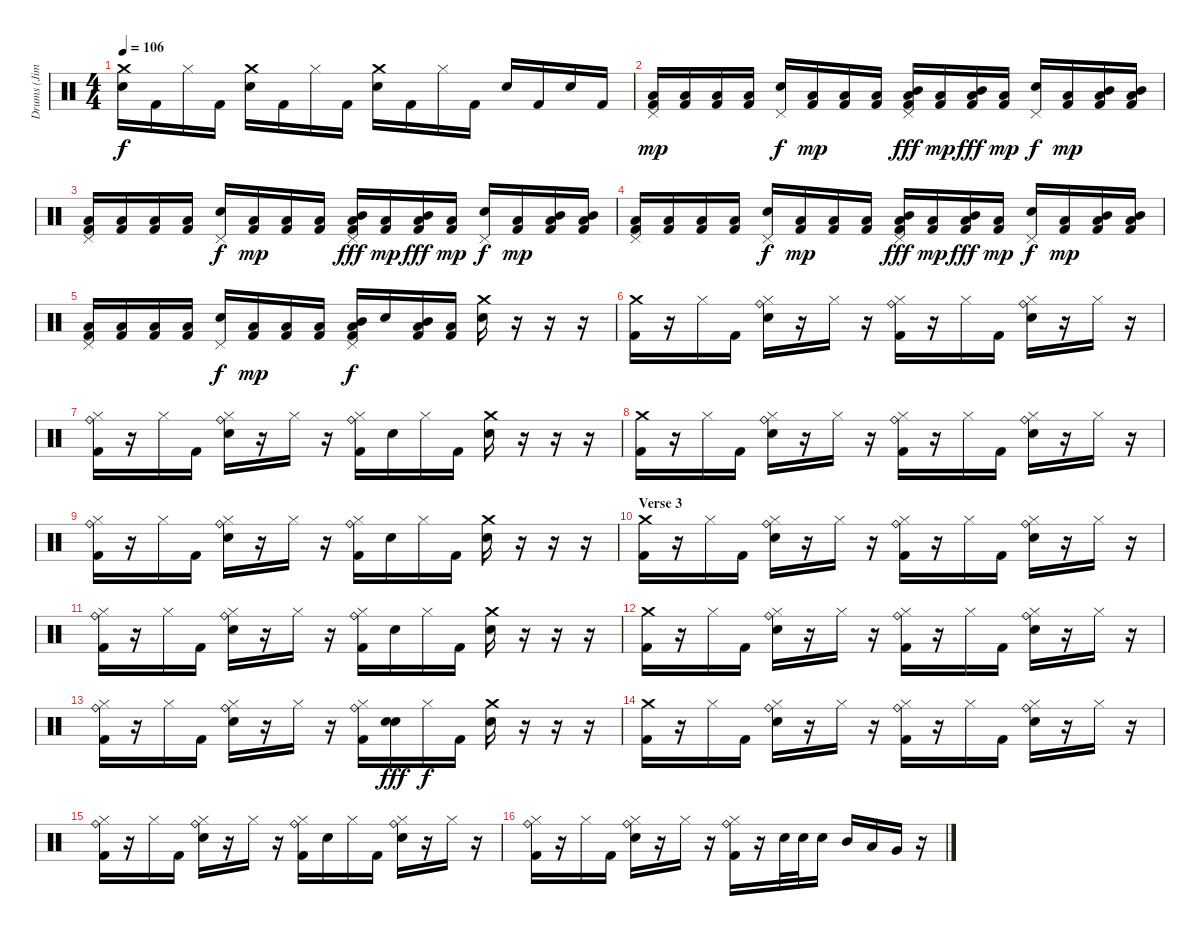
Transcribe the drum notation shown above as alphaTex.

\track ("Drums (Jimmy)" "Drums (Jim") {instrument percussion}
\staff {score}
\articulation defaults
\ts (4 4)
\tempo 106
\clef neutral
\ks c
("Crash medium (hit)" "Snare (hit) 2").16{dy f} "Kick (hit) 2".16 "Hi-Hat (closed)".16 "Kick (hit) 2".16 ("Crash medium (hit)" "Snare (hit) 2").16 "Kick (hit) 2".16 "Hi-Hat (closed)".16 "Kick (hit) 2".16 ("Crash medium (hit)" "Snare (hit) 2").16 "Kick (hit) 2".16 "Hi-Hat (closed)".16 "Kick (hit) 2".16 "Snare (hit) 2".16 "Kick (hit) 2".16 "Snare (hit) 2".16 "Kick (hit) 2".16 |
("Pedal Hi-Hat (hit)" "Low Tom (hit)" "Kick (hit) 2").16{dy mp} ("Low Tom (hit)" "Kick (hit) 2").16 ("Low Tom (hit)" "Kick (hit) 2").16 ("Low Tom (hit)" "Kick (hit) 2").16 ("Pedal Hi-Hat (hit)" "Snare (hit) 2").16{dy f} ("Low Tom (hit)" "Kick (hit) 2").16{dy mp} ("Low Tom (hit)" "Kick (hit) 2").16 ("Low Tom (hit)" "Kick (hit) 2").16 ("Pedal Hi-Hat (hit)" "Mid Tom (hit)" "Low Tom (hit)" "Kick (hit) 2").16{dy fff} ("Low Tom (hit)" "Kick (hit) 2").16{dy mp} ("Mid Tom (hit)" "Low Tom (hit)" "Kick (hit) 2").16{dy fff} ("Low Tom (hit)" "Kick (hit) 2").16{dy mp} ("Pedal Hi-Hat (hit)" "Snare (hit) 2").16{dy f} ("Low Tom (hit)" "Kick (hit) 2").16{dy mp} ("Mid Tom (hit)" "Low Tom (hit)" "Kick (hit) 2").16 ("Mid Tom (hit)" "Low Tom (hit)" "Kick (hit) 2").16 |
("Pedal Hi-Hat (hit)" "Low Tom (hit)" "Kick (hit) 2").16 ("Low Tom (hit)" "Kick (hit) 2").16 ("Low Tom (hit)" "Kick (hit) 2").16 ("Low Tom (hit)" "Kick (hit) 2").16 ("Pedal Hi-Hat (hit)" "Snare (hit) 2").16{dy f} ("Low Tom (hit)" "Kick (hit) 2").16{dy mp} ("Low Tom (hit)" "Kick (hit) 2").16 ("Low Tom (hit)" "Kick (hit) 2").16 ("Pedal Hi-Hat (hit)" "Mid Tom (hit)" "Low Tom (hit)" "Kick (hit) 2").16{dy fff} ("Low Tom (hit)" "Kick (hit) 2").16{dy mp} ("Mid Tom (hit)" "Low Tom (hit)" "Kick (hit) 2").16{dy fff} ("Low Tom (hit)" "Kick (hit) 2").16{dy mp} ("Pedal Hi-Hat (hit)" "Snare (hit) 2").16{dy f} ("Low Tom (hit)" "Kick (hit) 2").16{dy mp} ("Mid Tom (hit)" "Low Tom (hit)" "Kick (hit) 2").16 ("Mid Tom (hit)" "Low Tom (hit)" "Kick (hit) 2").16 |
("Pedal Hi-Hat (hit)" "Low Tom (hit)" "Kick (hit) 2").16 ("Low Tom (hit)" "Kick (hit) 2").16 ("Low Tom (hit)" "Kick (hit) 2").16 ("Low Tom (hit)" "Kick (hit) 2").16 ("Pedal Hi-Hat (hit)" "Snare (hit) 2").16{dy f} ("Low Tom (hit)" "Kick (hit) 2").16{dy mp} ("Low Tom (hit)" "Kick (hit) 2").16 ("Low Tom (hit)" "Kick (hit) 2").16 ("Pedal Hi-Hat (hit)" "Mid Tom (hit)" "Low Tom (hit)" "Kick (hit) 2").16{dy fff} ("Low Tom (hit)" "Kick (hit) 2").16{dy mp} ("Mid Tom (hit)" "Low Tom (hit)" "Kick (hit) 2").16{dy fff} ("Low Tom (hit)" "Kick (hit) 2").16{dy mp} ("Pedal Hi-Hat (hit)" "Snare (hit) 2").16{dy f} ("Low Tom (hit)" "Kick (hit) 2").16{dy mp} ("Mid Tom (hit)" "Low Tom (hit)" "Kick (hit) 2").16 ("Mid Tom (hit)" "Low Tom (hit)" "Kick (hit) 2").16 |
("Pedal Hi-Hat (hit)" "Low Tom (hit)" "Kick (hit) 2").16 ("Low Tom (hit)" "Kick (hit) 2").16 ("Low Tom (hit)" "Kick (hit) 2").16 ("Low Tom (hit)" "Kick (hit) 2").16 ("Pedal Hi-Hat (hit)" "Snare (hit) 2").16{dy f} ("Low Tom (hit)" "Kick (hit) 2").16{dy mp} ("Low Tom (hit)" "Kick (hit) 2").16 ("Low Tom (hit)" "Kick (hit) 2").16 ("Pedal Hi-Hat (hit)" "Mid Tom (hit)" "Low Tom (hit)" "Kick (hit) 2").16{dy f} "Snare (hit) 2".16 ("Mid Tom (hit)" "Low Tom (hit)" "Kick (hit) 2").16 ("Low Tom (hit)" "Kick (hit) 2").16 ("Crash medium (hit)" "Snare (hit) 2").16 r.16 r.16 r.16 |
("Crash medium (hit)" "Kick (hit) 2").16 r.16 "Hi-Hat (closed)".16 "Kick (hit) 2".16 ("Ride (bell)" "Hi-Hat (closed)" "Snare (hit) 2").16 r.16 "Hi-Hat (closed)".16 r.16 ("Ride (bell)" "Hi-Hat (closed)" "Kick (hit) 2").16 r.16 "Hi-Hat (closed)".16 "Kick (hit) 2".16 ("Ride (bell)" "Hi-Hat (closed)" "Snare (hit) 2").16 r.16 "Hi-Hat (closed)".16 r.16 |
("Ride (bell)" "Hi-Hat (closed)" "Kick (hit) 2").16 r.16 "Hi-Hat (closed)".16 "Kick (hit) 2".16 ("Ride (bell)" "Hi-Hat (closed)" "Snare (hit) 2").16 r.16 "Hi-Hat (closed)".16 r.16 ("Ride (bell)" "Hi-Hat (closed)" "Kick (hit) 2").16 "Snare (hit) 2".16 "Hi-Hat (closed)".16 "Kick (hit) 2".16 ("Crash medium (hit)" "Snare (hit) 2").16 r.16 r.16 r.16 |
("Crash medium (hit)" "Kick (hit) 2").16 r.16 "Hi-Hat (closed)".16 "Kick (hit) 2".16 ("Ride (bell)" "Hi-Hat (closed)" "Snare (hit) 2").16 r.16 "Hi-Hat (closed)".16 r.16 ("Ride (bell)" "Hi-Hat (closed)" "Kick (hit) 2").16 r.16 "Hi-Hat (closed)".16 "Kick (hit) 2".16 ("Ride (bell)" "Hi-Hat (closed)" "Snare (hit) 2").16 r.16 "Hi-Hat (closed)".16 r.16 |
("Ride (bell)" "Hi-Hat (closed)" "Kick (hit) 2").16 r.16 "Hi-Hat (closed)".16 "Kick (hit) 2".16 ("Ride (bell)" "Hi-Hat (closed)" "Snare (hit) 2").16 r.16 "Hi-Hat (closed)".16 r.16 ("Ride (bell)" "Hi-Hat (closed)" "Kick (hit) 2").16 "Snare (hit) 2".16 "Hi-Hat (closed)".16 "Kick (hit) 2".16 ("Crash medium (hit)" "Snare (hit) 2").16 r.16 r.16 r.16 |
\section ("" "Verse 3")
("Crash medium (hit)" "Kick (hit) 2").16 r.16 "Hi-Hat (closed)".16 "Kick (hit) 2".16 ("Ride (bell)" "Hi-Hat (closed)" "Snare (hit) 2").16 r.16 "Hi-Hat (closed)".16 r.16 ("Ride (bell)" "Hi-Hat (closed)" "Kick (hit) 2").16 r.16 "Hi-Hat (closed)".16 "Kick (hit) 2".16 ("Ride (bell)" "Hi-Hat (closed)" "Snare (hit) 2").16 r.16 "Hi-Hat (closed)".16 r.16 |
("Ride (bell)" "Hi-Hat (closed)" "Kick (hit) 2").16 r.16 "Hi-Hat (closed)".16 "Kick (hit) 2".16 ("Ride (bell)" "Hi-Hat (closed)" "Snare (hit) 2").16 r.16 "Hi-Hat (closed)".16 r.16 ("Ride (bell)" "Hi-Hat (closed)" "Kick (hit) 2").16 "Snare (hit) 2".16 "Hi-Hat (closed)".16 "Kick (hit) 2".16 ("Crash medium (hit)" "Snare (hit) 2").16 r.16 r.16 r.16 |
("Crash medium (hit)" "Kick (hit) 2").16 r.16 "Hi-Hat (closed)".16 "Kick (hit) 2".16 ("Ride (bell)" "Hi-Hat (closed)" "Snare (hit) 2").16 r.16 "Hi-Hat (closed)".16 r.16 ("Ride (bell)" "Hi-Hat (closed)" "Kick (hit) 2").16 r.16 "Hi-Hat (closed)".16 "Kick (hit) 2".16 ("Ride (bell)" "Hi-Hat (closed)" "Snare (hit) 2").16 r.16 "Hi-Hat (closed)".16 r.16 |
("Ride (bell)" "Hi-Hat (closed)" "Kick (hit) 2").16 r.16 "Hi-Hat (closed)".16 "Kick (hit) 2".16 ("Ride (bell)" "Hi-Hat (closed)" "Snare (hit) 2").16 r.16 "Hi-Hat (closed)".16 r.16 ("Ride (bell)" "Hi-Hat (closed)" "Kick (hit) 2").16 ("Snare (hit) 2" "Snare (hit) 2").16{dy fff} "Hi-Hat (closed)".16{dy f} "Kick (hit) 2".16 ("Crash medium (hit)" "Snare (hit) 2").16 r.16 r.16 r.16 |
("Crash medium (hit)" "Kick (hit) 2").16 r.16 "Hi-Hat (closed)".16 "Kick (hit) 2".16 ("Ride (bell)" "Hi-Hat (closed)" "Snare (hit) 2").16 r.16 "Hi-Hat (closed)".16 r.16 ("Ride (bell)" "Hi-Hat (closed)" "Kick (hit) 2").16 r.16 "Hi-Hat (closed)".16 "Kick (hit) 2".16 ("Ride (bell)" "Hi-Hat (closed)" "Snare (hit) 2").16 r.16 "Hi-Hat (closed)".16 r.16 |
("Ride (bell)" "Hi-Hat (closed)" "Kick (hit) 2").16 r.16 "Hi-Hat (closed)".16 "Kick (hit) 2".16 ("Ride (bell)" "Hi-Hat (closed)" "Snare (hit) 2").16 r.16 "Hi-Hat (closed)".16 r.16 ("Ride (bell)" "Hi-Hat (closed)" "Kick (hit) 2").16 "Snare (hit) 2".16 "Hi-Hat (closed)".16 "Kick (hit) 2".16 ("Ride (bell)" "Hi-Hat (closed)" "Snare (hit) 2").16 r.16 "Hi-Hat (closed)".16 r.16 |
("Ride (bell)" "Hi-Hat (closed)" "Kick (hit) 2").16 r.16 "Hi-Hat (closed)".16 "Kick (hit) 2".16 ("Ride (bell)" "Hi-Hat (closed)" "Snare (hit) 2").16 r.16 "Hi-Hat (closed)".16 r.16 ("Ride (bell)" "Hi-Hat (closed)" "Kick (hit) 2").16 r.16 "Snare (hit) 2".32 "Snare (hit) 2".32 "Snare (hit) 2".16 "Mid Tom (hit)".16 "Low Tom (hit)".16 "Very Low Tom (hit)".16 r.16
